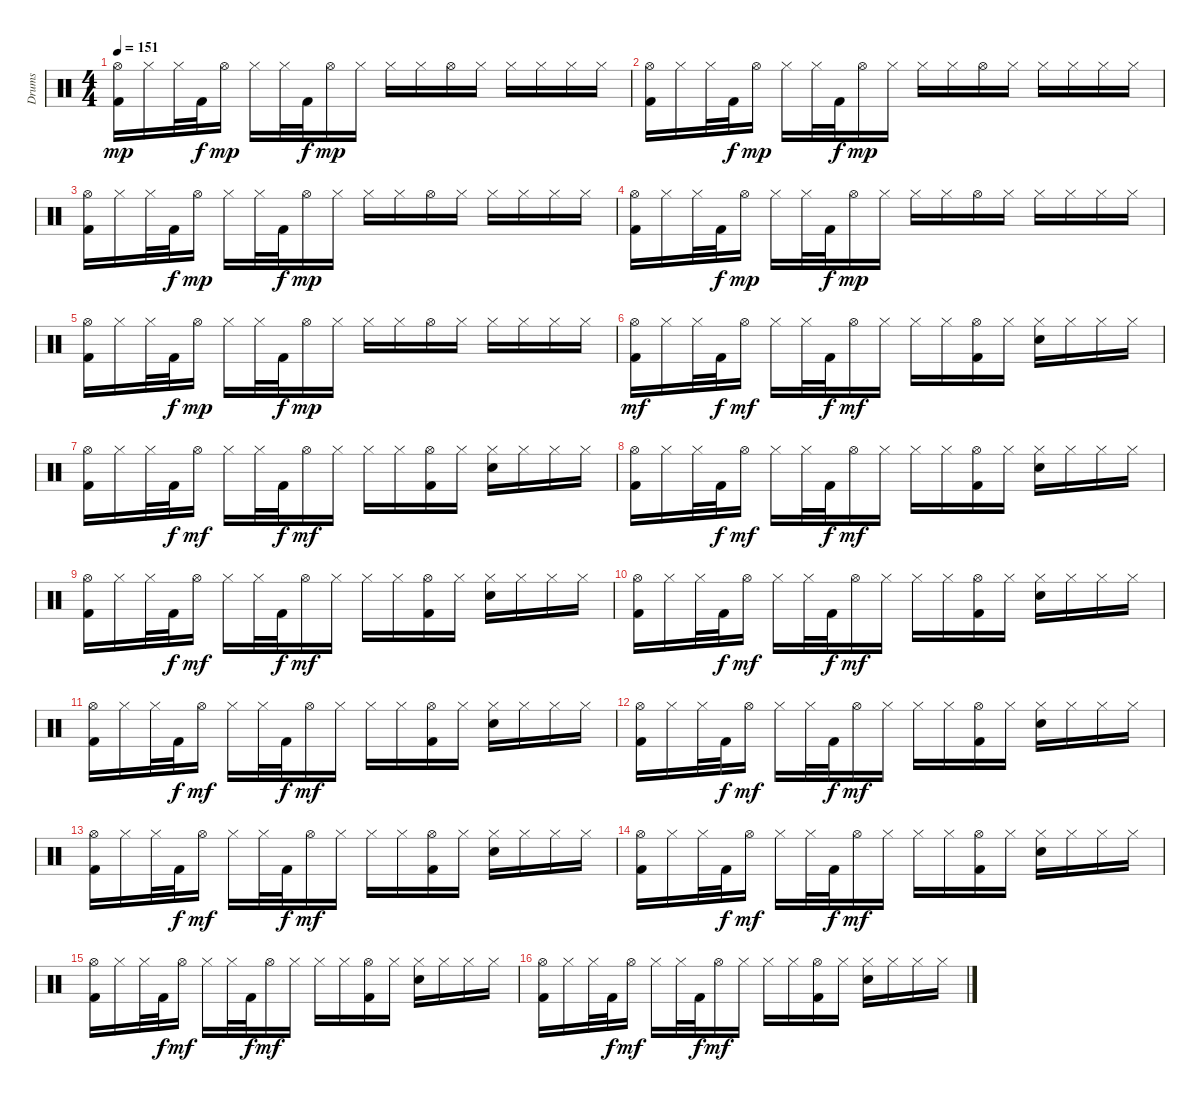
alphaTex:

\track ("Drums" "Drums") {instrument percussion}
\staff {score}
\articulation defaults
\ts (4 4)
\tempo 151
\clef neutral
\ks c
("Hi-Hat (open)" "Kick (hit) 2").16{dy mp} "Hi-Hat (closed)".16 "Hi-Hat (closed)".32 "Kick (hit) 2".32{dy f} "Hi-Hat (open)".16{dy mp} "Hi-Hat (closed)".16 "Hi-Hat (closed)".32 "Kick (hit) 2".32{dy f} "Hi-Hat (open)".16{dy mp} "Hi-Hat (closed)".16 "Hi-Hat (closed)".16 "Hi-Hat (closed)".16 "Hi-Hat (open)".16 "Hi-Hat (closed)".16 "Hi-Hat (closed)".16 "Hi-Hat (closed)".16 "Hi-Hat (closed)".16 "Hi-Hat (closed)".16 |
("Hi-Hat (open)" "Kick (hit) 2").16 "Hi-Hat (closed)".16 "Hi-Hat (closed)".32 "Kick (hit) 2".32{dy f} "Hi-Hat (open)".16{dy mp} "Hi-Hat (closed)".16 "Hi-Hat (closed)".32 "Kick (hit) 2".32{dy f} "Hi-Hat (open)".16{dy mp} "Hi-Hat (closed)".16 "Hi-Hat (closed)".16 "Hi-Hat (closed)".16 "Hi-Hat (open)".16 "Hi-Hat (closed)".16 "Hi-Hat (closed)".16 "Hi-Hat (closed)".16 "Hi-Hat (closed)".16 "Hi-Hat (closed)".16 |
("Hi-Hat (open)" "Kick (hit) 2").16 "Hi-Hat (closed)".16 "Hi-Hat (closed)".32 "Kick (hit) 2".32{dy f} "Hi-Hat (open)".16{dy mp} "Hi-Hat (closed)".16 "Hi-Hat (closed)".32 "Kick (hit) 2".32{dy f} "Hi-Hat (open)".16{dy mp} "Hi-Hat (closed)".16 "Hi-Hat (closed)".16 "Hi-Hat (closed)".16 "Hi-Hat (open)".16 "Hi-Hat (closed)".16 "Hi-Hat (closed)".16 "Hi-Hat (closed)".16 "Hi-Hat (closed)".16 "Hi-Hat (closed)".16 |
("Hi-Hat (open)" "Kick (hit) 2").16 "Hi-Hat (closed)".16 "Hi-Hat (closed)".32 "Kick (hit) 2".32{dy f} "Hi-Hat (open)".16{dy mp} "Hi-Hat (closed)".16 "Hi-Hat (closed)".32 "Kick (hit) 2".32{dy f} "Hi-Hat (open)".16{dy mp} "Hi-Hat (closed)".16 "Hi-Hat (closed)".16 "Hi-Hat (closed)".16 "Hi-Hat (open)".16 "Hi-Hat (closed)".16 "Hi-Hat (closed)".16 "Hi-Hat (closed)".16 "Hi-Hat (closed)".16 "Hi-Hat (closed)".16 |
("Hi-Hat (open)" "Kick (hit) 2").16 "Hi-Hat (closed)".16 "Hi-Hat (closed)".32 "Kick (hit) 2".32{dy f} "Hi-Hat (open)".16{dy mp} "Hi-Hat (closed)".16 "Hi-Hat (closed)".32 "Kick (hit) 2".32{dy f} "Hi-Hat (open)".16{dy mp} "Hi-Hat (closed)".16 "Hi-Hat (closed)".16 "Hi-Hat (closed)".16 "Hi-Hat (open)".16 "Hi-Hat (closed)".16 "Hi-Hat (closed)".16 "Hi-Hat (closed)".16 "Hi-Hat (closed)".16 "Hi-Hat (closed)".16 |
("Hi-Hat (open)" "Kick (hit) 2").16{dy mf} "Hi-Hat (closed)".16 "Hi-Hat (closed)".32 "Kick (hit) 2".32{dy f} "Hi-Hat (open)".16{dy mf} "Hi-Hat (closed)".16 "Hi-Hat (closed)".32 "Kick (hit) 2".32{dy f} "Hi-Hat (open)".16{dy mf} "Hi-Hat (closed)".16 "Hi-Hat (closed)".16 "Hi-Hat (closed)".16 ("Hi-Hat (open)" "Kick (hit) 2").16 "Hi-Hat (closed)".16 ("Hi-Hat (closed)" "Snare (hit) 2").16 "Hi-Hat (closed)".16 "Hi-Hat (closed)".16 "Hi-Hat (closed)".16 |
("Hi-Hat (open)" "Kick (hit) 2").16 "Hi-Hat (closed)".16 "Hi-Hat (closed)".32 "Kick (hit) 2".32{dy f} "Hi-Hat (open)".16{dy mf} "Hi-Hat (closed)".16 "Hi-Hat (closed)".32 "Kick (hit) 2".32{dy f} "Hi-Hat (open)".16{dy mf} "Hi-Hat (closed)".16 "Hi-Hat (closed)".16 "Hi-Hat (closed)".16 ("Hi-Hat (open)" "Kick (hit) 2").16 "Hi-Hat (closed)".16 ("Hi-Hat (closed)" "Snare (hit) 2").16 "Hi-Hat (closed)".16 "Hi-Hat (closed)".16 "Hi-Hat (closed)".16 |
("Hi-Hat (open)" "Kick (hit) 2").16 "Hi-Hat (closed)".16 "Hi-Hat (closed)".32 "Kick (hit) 2".32{dy f} "Hi-Hat (open)".16{dy mf} "Hi-Hat (closed)".16 "Hi-Hat (closed)".32 "Kick (hit) 2".32{dy f} "Hi-Hat (open)".16{dy mf} "Hi-Hat (closed)".16 "Hi-Hat (closed)".16 "Hi-Hat (closed)".16 ("Hi-Hat (open)" "Kick (hit) 2").16 "Hi-Hat (closed)".16 ("Hi-Hat (closed)" "Snare (hit) 2").16 "Hi-Hat (closed)".16 "Hi-Hat (closed)".16 "Hi-Hat (closed)".16 |
("Hi-Hat (open)" "Kick (hit) 2").16 "Hi-Hat (closed)".16 "Hi-Hat (closed)".32 "Kick (hit) 2".32{dy f} "Hi-Hat (open)".16{dy mf} "Hi-Hat (closed)".16 "Hi-Hat (closed)".32 "Kick (hit) 2".32{dy f} "Hi-Hat (open)".16{dy mf} "Hi-Hat (closed)".16 "Hi-Hat (closed)".16 "Hi-Hat (closed)".16 ("Hi-Hat (open)" "Kick (hit) 2").16 "Hi-Hat (closed)".16 ("Hi-Hat (closed)" "Snare (hit) 2").16 "Hi-Hat (closed)".16 "Hi-Hat (closed)".16 "Hi-Hat (closed)".16 |
("Hi-Hat (open)" "Kick (hit) 2").16 "Hi-Hat (closed)".16 "Hi-Hat (closed)".32 "Kick (hit) 2".32{dy f} "Hi-Hat (open)".16{dy mf} "Hi-Hat (closed)".16 "Hi-Hat (closed)".32 "Kick (hit) 2".32{dy f} "Hi-Hat (open)".16{dy mf} "Hi-Hat (closed)".16 "Hi-Hat (closed)".16 "Hi-Hat (closed)".16 ("Hi-Hat (open)" "Kick (hit) 2").16 "Hi-Hat (closed)".16 ("Hi-Hat (closed)" "Snare (hit) 2").16 "Hi-Hat (closed)".16 "Hi-Hat (closed)".16 "Hi-Hat (closed)".16 |
("Hi-Hat (open)" "Kick (hit) 2").16 "Hi-Hat (closed)".16 "Hi-Hat (closed)".32 "Kick (hit) 2".32{dy f} "Hi-Hat (open)".16{dy mf} "Hi-Hat (closed)".16 "Hi-Hat (closed)".32 "Kick (hit) 2".32{dy f} "Hi-Hat (open)".16{dy mf} "Hi-Hat (closed)".16 "Hi-Hat (closed)".16 "Hi-Hat (closed)".16 ("Hi-Hat (open)" "Kick (hit) 2").16 "Hi-Hat (closed)".16 ("Hi-Hat (closed)" "Snare (hit) 2").16 "Hi-Hat (closed)".16 "Hi-Hat (closed)".16 "Hi-Hat (closed)".16 |
("Hi-Hat (open)" "Kick (hit) 2").16 "Hi-Hat (closed)".16 "Hi-Hat (closed)".32 "Kick (hit) 2".32{dy f} "Hi-Hat (open)".16{dy mf} "Hi-Hat (closed)".16 "Hi-Hat (closed)".32 "Kick (hit) 2".32{dy f} "Hi-Hat (open)".16{dy mf} "Hi-Hat (closed)".16 "Hi-Hat (closed)".16 "Hi-Hat (closed)".16 ("Hi-Hat (open)" "Kick (hit) 2").16 "Hi-Hat (closed)".16 ("Hi-Hat (closed)" "Snare (hit) 2").16 "Hi-Hat (closed)".16 "Hi-Hat (closed)".16 "Hi-Hat (closed)".16 |
("Hi-Hat (open)" "Kick (hit) 2").16 "Hi-Hat (closed)".16 "Hi-Hat (closed)".32 "Kick (hit) 2".32{dy f} "Hi-Hat (open)".16{dy mf} "Hi-Hat (closed)".16 "Hi-Hat (closed)".32 "Kick (hit) 2".32{dy f} "Hi-Hat (open)".16{dy mf} "Hi-Hat (closed)".16 "Hi-Hat (closed)".16 "Hi-Hat (closed)".16 ("Hi-Hat (open)" "Kick (hit) 2").16 "Hi-Hat (closed)".16 ("Hi-Hat (closed)" "Snare (hit) 2").16 "Hi-Hat (closed)".16 "Hi-Hat (closed)".16 "Hi-Hat (closed)".16 |
("Hi-Hat (open)" "Kick (hit) 2").16 "Hi-Hat (closed)".16 "Hi-Hat (closed)".32 "Kick (hit) 2".32{dy f} "Hi-Hat (open)".16{dy mf} "Hi-Hat (closed)".16 "Hi-Hat (closed)".32 "Kick (hit) 2".32{dy f} "Hi-Hat (open)".16{dy mf} "Hi-Hat (closed)".16 "Hi-Hat (closed)".16 "Hi-Hat (closed)".16 ("Hi-Hat (open)" "Kick (hit) 2").16 "Hi-Hat (closed)".16 ("Hi-Hat (closed)" "Snare (hit) 2").16 "Hi-Hat (closed)".16 "Hi-Hat (closed)".16 "Hi-Hat (closed)".16 |
("Hi-Hat (open)" "Kick (hit) 2").16 "Hi-Hat (closed)".16 "Hi-Hat (closed)".32 "Kick (hit) 2".32{dy f} "Hi-Hat (open)".16{dy mf} "Hi-Hat (closed)".16 "Hi-Hat (closed)".32 "Kick (hit) 2".32{dy f} "Hi-Hat (open)".16{dy mf} "Hi-Hat (closed)".16 "Hi-Hat (closed)".16 "Hi-Hat (closed)".16 ("Hi-Hat (open)" "Kick (hit) 2").16 "Hi-Hat (closed)".16 ("Hi-Hat (closed)" "Snare (hit) 2").16 "Hi-Hat (closed)".16 "Hi-Hat (closed)".16 "Hi-Hat (closed)".16 |
("Hi-Hat (open)" "Kick (hit) 2").16 "Hi-Hat (closed)".16 "Hi-Hat (closed)".32 "Kick (hit) 2".32{dy f} "Hi-Hat (open)".16{dy mf} "Hi-Hat (closed)".16 "Hi-Hat (closed)".32 "Kick (hit) 2".32{dy f} "Hi-Hat (open)".16{dy mf} "Hi-Hat (closed)".16 "Hi-Hat (closed)".16 "Hi-Hat (closed)".16 ("Hi-Hat (open)" "Kick (hit) 2").16 "Hi-Hat (closed)".16 ("Hi-Hat (closed)" "Snare (hit) 2").16 "Hi-Hat (closed)".16 "Hi-Hat (closed)".16 "Hi-Hat (closed)".16
